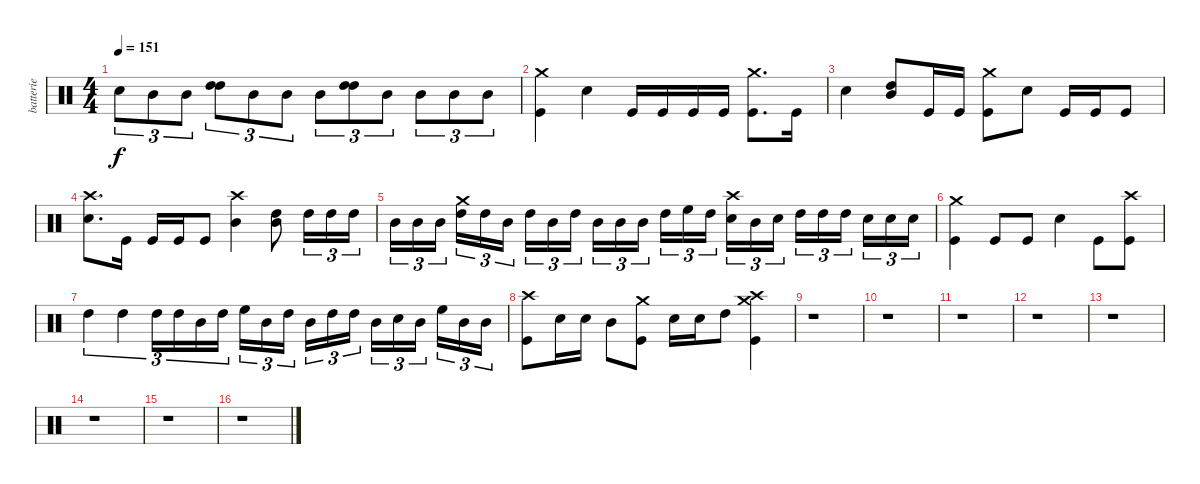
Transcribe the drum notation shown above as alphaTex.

\track ("batterie" "batterie") {instrument percussion}
\staff {score}
\articulation defaults
\ts (4 4)
\tempo 151
\clef neutral
\ks c "Snare (hit) 2".8{tu (3 2) dy f} "Mid Tom (hit)".8{tu (3 2)} "Mid Tom (hit)".8{tu (3 2)}
("High Tom (hit)" "High Tom (hit)").8{tu (3 2)} "Mid Tom (hit)".8{tu (3 2)} "Mid Tom (hit)".8{tu (3 2)} "Mid Tom (hit)".8{tu (3 2)} ("High Tom (hit)" "High Tom (hit)").8{tu (3 2)} "Mid Tom (hit)".8{tu (3 2)} "Mid Tom (hit)".8{tu (3 2)} "Mid Tom (hit)".8{tu (3 2)} "Mid Tom (hit)".8{tu (3 2)} |
("Crash medium (hit)" "Kick (hit)").4 "Snare (hit) 2".4 "Kick (hit)".16 "Kick (hit)".16 "Kick (hit)".16 "Kick (hit)".16 ("Crash medium (hit)" "Kick (hit)").8{d} "Kick (hit)".16 |
"Snare (hit) 2".4 ("High Tom (hit)" "Mid Tom (hit)").8 "Kick (hit)".16 "Kick (hit)".16 ("Crash medium (hit)" "Kick (hit)").8 "Snare (hit) 2".8 "Kick (hit)".16 "Kick (hit)".16 "Kick (hit)".8 |
("Crash high (hit)" "Snare (hit) 2").8{d} "Kick (hit)".16 "Kick (hit)".16 "Kick (hit)".16 "Kick (hit)".8 ("Crash high (hit)" "Mid Tom (hit)").4 ("Mid Tom (hit)" "High Tom (hit)").8 "High Tom (hit)".16{tu (3 2)} "High Tom (hit)".16{tu (3 2)} "High Tom (hit)".16{tu (3 2)} |
"Mid Tom (hit)".16{tu (3 2)} "Mid Tom (hit)".16{tu (3 2)} "Mid Tom (hit)".16{tu (3 2)} ("Crash medium (hit)" "High Tom (hit)").16{tu (3 2)} "High Tom (hit)".16{tu (3 2)} "Mid Tom (hit)".16{tu (3 2)} "High Tom (hit)".16{tu (3 2)} "Mid Tom (hit)".16{tu (3 2)} "High Tom (hit)".16{tu (3 2)} "Mid Tom (hit)".16{tu (3 2)} "Mid Tom (hit)".16{tu (3 2)} "Mid Tom (hit)".16{tu (3 2)} "High Tom (hit)".16{tu (3 2)} "High Floor Tom (hit)".16{tu (3 2)} "High Tom (hit)".16{tu (3 2)} ("Crash high (hit)" "Snare (hit) 2").16{tu (3 2)} "Mid Tom (hit)".16{tu (3 2)} "Snare (hit) 2".16{tu (3 2)} "High Tom (hit)".16{tu (3 2)} "High Tom (hit)".16{tu (3 2)} "High Tom (hit)".16{tu (3 2)} "Snare (hit) 2".16{tu (3 2)} "Snare (hit) 2".16{tu (3 2)} "Snare (hit) 2".16{tu (3 2)} |
("Crash medium (hit)" "Kick (hit)").4 "Kick (hit)".8 "Kick (hit)".8 "Snare (hit) 2".4 "Kick (hit)".8 ("Crash high (hit)" "Kick (hit)").8 |
"High Tom (hit)".4{tu (3 2)} "High Tom (hit)".4{tu (3 2)} "High Tom (hit)".16{tu (3 2)} "High Tom (hit)".16{tu (3 2)} "Mid Tom (hit)".16{tu (3 2)} "High Tom (hit)".16{tu (3 2)} "High Floor Tom (hit)".16{tu (3 2)} "Mid Tom (hit)".16{tu (3 2)} "High Tom (hit)".16{tu (3 2)} "Mid Tom (hit)".16{tu (3 2)} "High Tom (hit)".16{tu (3 2)} "High Tom (hit)".16{tu (3 2)} "Mid Tom (hit)".16{tu (3 2)} "Snare (hit) 2".16{tu (3 2)} "Mid Tom (hit)".16{tu (3 2)} "High Floor Tom (hit)".16{tu (3 2)} "Mid Tom (hit)".16{tu (3 2)} "Mid Tom (hit)".16{tu (3 2)} |
("Crash high (hit)" "Kick (hit)").8 "Snare (hit) 2".16 "Snare (hit) 2".16 "Mid Tom (hit)".8 ("Crash medium (hit)" "Kick (hit)").8 "Snare (hit) 2".16 "Snare (hit) 2".16 "High Tom (hit)".8 ("Crash medium (hit)" "Crash high (hit)" "Kick (hit)").4 |
r.1 |
r.1 |
r.1 |
r.1 |
r.1 |
r.1 |
r.1 |
r.1
